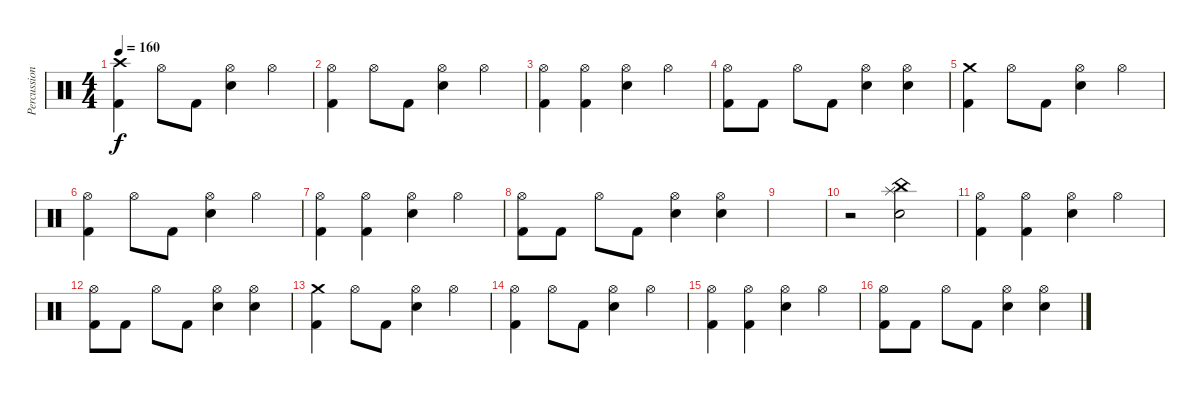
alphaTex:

\track ("Percussioni" "Percussion") {instrument percussion}
\staff {score}
\articulation defaults
\ts (4 4)
\tempo 160
\clef neutral
\ks c
("Crash high (hit)" "Kick (hit) 2").4{dy f} "Hi-Hat (open)".8 "Kick (hit) 2".8 ("Hi-Hat (open)" "Electric Snare (hit)").4 "Hi-Hat (open)".4 |
("Hi-Hat (open)" "Kick (hit) 2").4 "Hi-Hat (open)".8 "Kick (hit) 2".8 ("Hi-Hat (open)" "Electric Snare (hit)").4 "Hi-Hat (open)".4 |
("Hi-Hat (open)" "Kick (hit) 2").4 ("Hi-Hat (open)" "Kick (hit) 2").4 ("Hi-Hat (open)" "Electric Snare (hit)").4 "Hi-Hat (open)".4 |
("Hi-Hat (open)" "Kick (hit) 2").8 "Kick (hit) 2".8 "Hi-Hat (open)".8 "Kick (hit) 2".8 ("Hi-Hat (open)" "Electric Snare (hit)").4 ("Hi-Hat (open)" "Electric Snare (hit)").4 |
("Crash medium (hit)" "Kick (hit) 2").4 "Hi-Hat (open)".8 "Kick (hit) 2".8 ("Hi-Hat (open)" "Electric Snare (hit)").4 "Hi-Hat (open)".4 |
("Hi-Hat (open)" "Kick (hit) 2").4 "Hi-Hat (open)".8 "Kick (hit) 2".8 ("Hi-Hat (open)" "Electric Snare (hit)").4 "Hi-Hat (open)".4 |
("Hi-Hat (open)" "Kick (hit) 2").4 ("Hi-Hat (open)" "Kick (hit) 2").4 ("Hi-Hat (open)" "Electric Snare (hit)").4 "Hi-Hat (open)".4 |
("Hi-Hat (open)" "Kick (hit) 2").8 "Kick (hit) 2".8 "Hi-Hat (open)".8 "Kick (hit) 2".8 ("Hi-Hat (open)" "Electric Snare (hit)").4 ("Hi-Hat (open)" "Electric Snare (hit)").4 |
|
r.2 ("China (hit)" "Splash (hit)" "Electric Snare (hit)").2 |
("Hi-Hat (open)" "Kick (hit) 2").4 ("Hi-Hat (open)" "Kick (hit) 2").4 ("Hi-Hat (open)" "Electric Snare (hit)").4 "Hi-Hat (open)".4 |
("Hi-Hat (open)" "Kick (hit) 2").8 "Kick (hit) 2".8 "Hi-Hat (open)".8 "Kick (hit) 2".8 ("Hi-Hat (open)" "Electric Snare (hit)").4 ("Hi-Hat (open)" "Electric Snare (hit)").4 |
("Crash medium (hit)" "Kick (hit) 2").4 "Hi-Hat (open)".8 "Kick (hit) 2".8 ("Hi-Hat (open)" "Electric Snare (hit)").4 "Hi-Hat (open)".4 |
("Hi-Hat (open)" "Kick (hit) 2").4 "Hi-Hat (open)".8 "Kick (hit) 2".8 ("Hi-Hat (open)" "Electric Snare (hit)").4 "Hi-Hat (open)".4 |
("Hi-Hat (open)" "Kick (hit) 2").4 ("Hi-Hat (open)" "Kick (hit) 2").4 ("Hi-Hat (open)" "Electric Snare (hit)").4 "Hi-Hat (open)".4 |
("Hi-Hat (open)" "Kick (hit) 2").8 "Kick (hit) 2".8 "Hi-Hat (open)".8 "Kick (hit) 2".8 ("Hi-Hat (open)" "Electric Snare (hit)").4 ("Hi-Hat (open)" "Electric Snare (hit)").4
